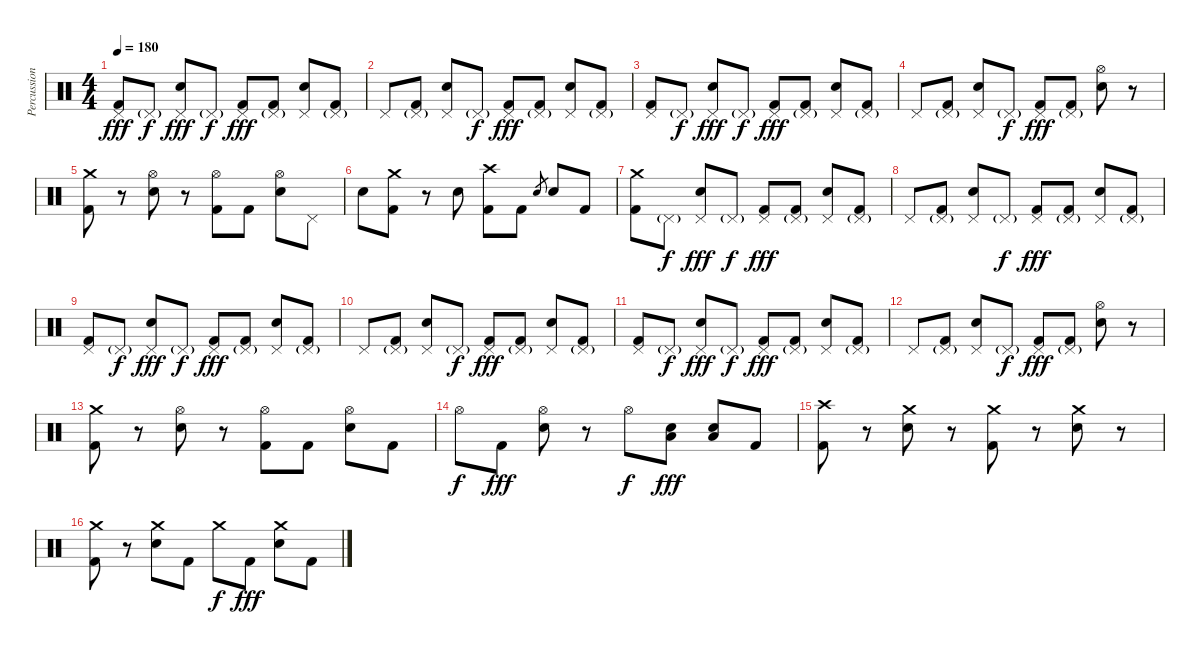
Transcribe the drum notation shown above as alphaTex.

\track ("Percussions" "Percussion") {mute instrument percussion}
\staff {score}
\articulation defaults
\ts (4 4)
\tempo 180
\clef neutral
\ks c
("Pedal Hi-Hat (hit)" "Kick (hit) 2").8{dy fff} "Pedal Hi-Hat (hit)"{g}.8{dy f} ("Pedal Hi-Hat (hit)" "Electric Snare (hit)").8{dy fff} "Pedal Hi-Hat (hit)"{g}.8{dy f} ("Pedal Hi-Hat (hit)" "Kick (hit) 2").8{dy fff} ("Pedal Hi-Hat (hit)"{g} "Kick (hit) 2").8 ("Pedal Hi-Hat (hit)" "Electric Snare (hit)").8 ("Pedal Hi-Hat (hit)"{g} "Kick (hit) 2").8 |
"Pedal Hi-Hat (hit)".8 ("Pedal Hi-Hat (hit)"{g} "Kick (hit) 2").8 ("Pedal Hi-Hat (hit)" "Electric Snare (hit)").8 "Pedal Hi-Hat (hit)"{g}.8{dy f} ("Pedal Hi-Hat (hit)" "Kick (hit) 2").8{dy fff} ("Pedal Hi-Hat (hit)"{g} "Kick (hit) 2").8 ("Pedal Hi-Hat (hit)" "Electric Snare (hit)").8 ("Pedal Hi-Hat (hit)"{g} "Kick (hit) 2").8 |
("Pedal Hi-Hat (hit)" "Kick (hit) 2").8 "Pedal Hi-Hat (hit)"{g}.8{dy f} ("Pedal Hi-Hat (hit)" "Electric Snare (hit)").8{dy fff} "Pedal Hi-Hat (hit)"{g}.8{dy f} ("Pedal Hi-Hat (hit)" "Kick (hit) 2").8{dy fff} ("Pedal Hi-Hat (hit)"{g} "Kick (hit) 2").8 ("Pedal Hi-Hat (hit)" "Electric Snare (hit)").8 ("Pedal Hi-Hat (hit)"{g} "Kick (hit) 2").8 |
"Pedal Hi-Hat (hit)".8 ("Pedal Hi-Hat (hit)"{g} "Kick (hit) 2").8 ("Pedal Hi-Hat (hit)" "Electric Snare (hit)").8 "Pedal Hi-Hat (hit)"{g}.8{dy f} ("Pedal Hi-Hat (hit)" "Kick (hit) 2").8{dy fff} ("Pedal Hi-Hat (hit)"{g} "Kick (hit) 2").8 ("Hi-Hat (open)" "Electric Snare (hit)").8 r.8 |
("Crash medium (hit)" "Kick (hit) 2").8 r.8 ("Hi-Hat (open)" "Electric Snare (hit)").8 r.8 ("Hi-Hat (open)" "Kick (hit) 2").8 "Kick (hit) 2".8 ("Hi-Hat (open)" "Electric Snare (hit)").8 "Pedal Hi-Hat (hit)".8 |
"Electric Snare (hit)".8 ("Crash medium (hit)" "Kick (hit) 2").8 r.8 "Electric Snare (hit)".8 ("Crash high (hit)" "Kick (hit) 2").8 "Kick (hit) 2".8 "Electric Snare (hit)".8{gr} "Electric Snare (hit)".8 "Kick (hit) 2".8 |
("Crash medium (hit)" "Kick (hit) 2").8 "Pedal Hi-Hat (hit)"{g}.8{dy f} ("Pedal Hi-Hat (hit)" "Electric Snare (hit)").8{dy fff} "Pedal Hi-Hat (hit)"{g}.8{dy f} ("Pedal Hi-Hat (hit)" "Kick (hit) 2").8{dy fff} ("Pedal Hi-Hat (hit)"{g} "Kick (hit) 2").8 ("Pedal Hi-Hat (hit)" "Electric Snare (hit)").8 ("Pedal Hi-Hat (hit)"{g} "Kick (hit) 2").8 |
"Pedal Hi-Hat (hit)".8 ("Pedal Hi-Hat (hit)"{g} "Kick (hit) 2").8 ("Pedal Hi-Hat (hit)" "Electric Snare (hit)").8 "Pedal Hi-Hat (hit)"{g}.8{dy f} ("Pedal Hi-Hat (hit)" "Kick (hit) 2").8{dy fff} ("Pedal Hi-Hat (hit)"{g} "Kick (hit) 2").8 ("Pedal Hi-Hat (hit)" "Electric Snare (hit)").8 ("Pedal Hi-Hat (hit)"{g} "Kick (hit) 2").8 |
("Pedal Hi-Hat (hit)" "Kick (hit) 2").8 "Pedal Hi-Hat (hit)"{g}.8{dy f} ("Pedal Hi-Hat (hit)" "Electric Snare (hit)").8{dy fff} "Pedal Hi-Hat (hit)"{g}.8{dy f} ("Pedal Hi-Hat (hit)" "Kick (hit) 2").8{dy fff} ("Pedal Hi-Hat (hit)"{g} "Kick (hit) 2").8 ("Pedal Hi-Hat (hit)" "Electric Snare (hit)").8 ("Pedal Hi-Hat (hit)"{g} "Kick (hit) 2").8 |
"Pedal Hi-Hat (hit)".8 ("Pedal Hi-Hat (hit)"{g} "Kick (hit) 2").8 ("Pedal Hi-Hat (hit)" "Electric Snare (hit)").8 "Pedal Hi-Hat (hit)"{g}.8{dy f} ("Pedal Hi-Hat (hit)" "Kick (hit) 2").8{dy fff} ("Pedal Hi-Hat (hit)"{g} "Kick (hit) 2").8 ("Pedal Hi-Hat (hit)" "Electric Snare (hit)").8 ("Pedal Hi-Hat (hit)"{g} "Kick (hit) 2").8 |
("Pedal Hi-Hat (hit)" "Kick (hit) 2").8 "Pedal Hi-Hat (hit)"{g}.8{dy f} ("Pedal Hi-Hat (hit)" "Electric Snare (hit)").8{dy fff} "Pedal Hi-Hat (hit)"{g}.8{dy f} ("Pedal Hi-Hat (hit)" "Kick (hit) 2").8{dy fff} ("Pedal Hi-Hat (hit)"{g} "Kick (hit) 2").8 ("Pedal Hi-Hat (hit)" "Electric Snare (hit)").8 ("Pedal Hi-Hat (hit)"{g} "Kick (hit) 2").8 |
"Pedal Hi-Hat (hit)".8 ("Pedal Hi-Hat (hit)"{g} "Kick (hit) 2").8 ("Pedal Hi-Hat (hit)" "Electric Snare (hit)").8 "Pedal Hi-Hat (hit)"{g}.8{dy f} ("Pedal Hi-Hat (hit)" "Kick (hit) 2").8{dy fff} ("Pedal Hi-Hat (hit)"{g} "Kick (hit) 2").8 ("Hi-Hat (open)" "Electric Snare (hit)").8 r.8 |
("Crash medium (hit)" "Kick (hit) 2").8 r.8 ("Hi-Hat (open)" "Electric Snare (hit)").8 r.8 ("Hi-Hat (open)" "Kick (hit) 2").8 "Kick (hit) 2".8 ("Hi-Hat (open)" "Electric Snare (hit)").8 "Kick (hit) 2".8 |
"Hi-Hat (open)".8{dy f} "Kick (hit) 2".8{dy fff} ("Hi-Hat (open)" "Electric Snare (hit)").8 r.8 "Hi-Hat (open)".8{dy f} ("Electric Snare (hit)" "Low Floor Tom (hit)").8{dy fff} ("Electric Snare (hit)" "Low Floor Tom (hit)").8 "Kick (hit) 2".8 |
("Crash high (hit)" "Kick (hit) 2").8 r.8 ("Crash medium (hit)" "Electric Snare (hit)").8 r.8 ("Crash medium (hit)" "Kick (hit) 2").8 r.8 ("Crash medium (hit)" "Electric Snare (hit)").8 r.8 |
("Crash medium (hit)" "Kick (hit) 2").8 r.8 ("Crash medium (hit)" "Electric Snare (hit)").8 "Kick (hit) 2".8 "Crash medium (hit)".8{dy f} "Kick (hit) 2".8{dy fff} ("Crash medium (hit)" "Electric Snare (hit)").8 "Kick (hit) 2".8
